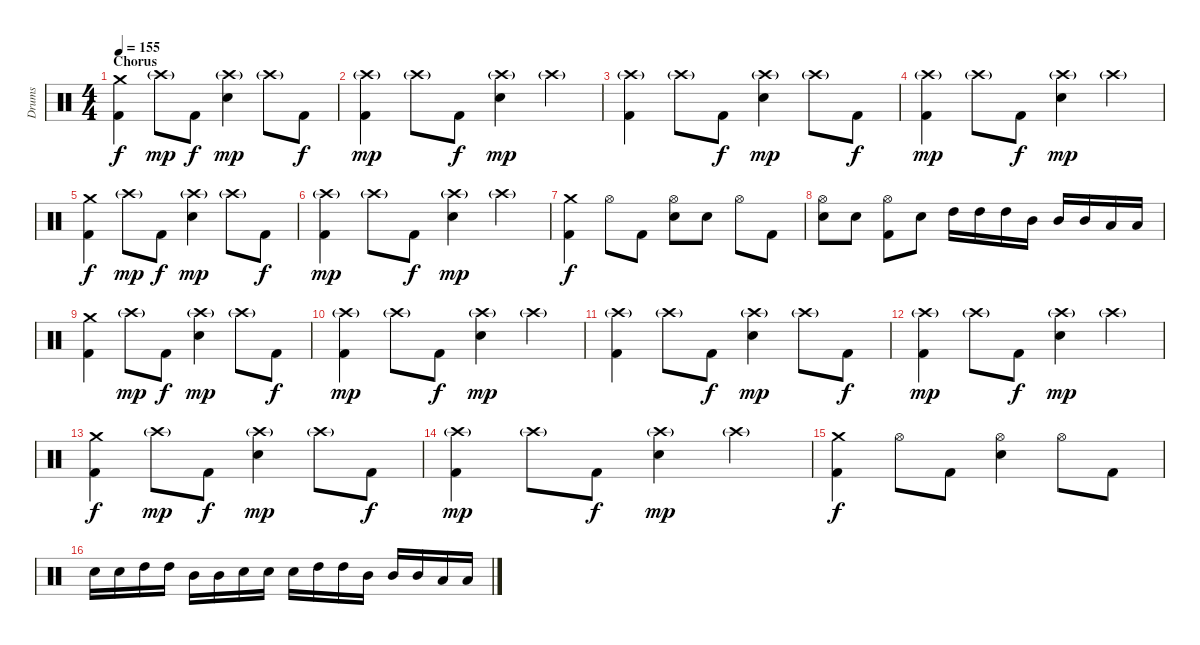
\track ("Drums" "Drums") {instrument percussion}
\staff {score}
\articulation defaults
\ts (4 4)
\section ("" "Chorus")
\tempo 155
\clef neutral
\ks c
("Crash medium (hit)" "Kick (hit) 2").4{dy f} "Crash high (hit)"{g}.8{dy mp} "Kick (hit) 2".8{dy f} ("Crash high (hit)"{g} "Electric Snare (hit)").4{dy mp} "Crash high (hit)"{g}.8 "Kick (hit) 2".8{dy f} |
("Crash high (hit)"{g} "Kick (hit) 2").4{dy mp} "Crash high (hit)"{g}.8 "Kick (hit) 2".8{dy f} ("Crash high (hit)"{g} "Electric Snare (hit)").4{dy mp} "Crash high (hit)"{g}.4 |
("Crash high (hit)"{g} "Kick (hit) 2").4 "Crash high (hit)"{g}.8 "Kick (hit) 2".8{dy f} ("Crash high (hit)"{g} "Electric Snare (hit)").4{dy mp} "Crash high (hit)"{g}.8 "Kick (hit) 2".8{dy f} |
("Crash high (hit)"{g} "Kick (hit) 2").4{dy mp} "Crash high (hit)"{g}.8 "Kick (hit) 2".8{dy f} ("Crash high (hit)"{g} "Electric Snare (hit)").4{dy mp} "Crash high (hit)"{g}.4 |
("Crash medium (hit)" "Kick (hit) 2").4{dy f} "Crash high (hit)"{g}.8{dy mp} "Kick (hit) 2".8{dy f} ("Crash high (hit)"{g} "Electric Snare (hit)").4{dy mp} "Crash high (hit)"{g}.8 "Kick (hit) 2".8{dy f} |
("Crash high (hit)"{g} "Kick (hit) 2").4{dy mp} "Crash high (hit)"{g}.8 "Kick (hit) 2".8{dy f} ("Crash high (hit)"{g} "Electric Snare (hit)").4{dy mp} "Crash high (hit)"{g}.4 |
("Crash medium (hit)" "Kick (hit) 2").4{dy f} "Hi-Hat (open)".8 "Kick (hit) 2".8 ("Hi-Hat (open)" "Electric Snare (hit)").8 "Electric Snare (hit)".8 "Hi-Hat (open)".8 "Kick (hit) 2".8 |
("Hi-Hat (open)" "Electric Snare (hit)").8 "Electric Snare (hit)".8 ("Hi-Hat (open)" "Kick (hit) 2").8 "Electric Snare (hit)".8 "High Tom (hit)".16 "High Tom (hit)".16 "High Tom (hit)".16 "Mid Tom (hit)".16 "Mid Tom (hit)".16 "Mid Tom (hit)".16 "Low Tom (hit)".16 "Low Tom (hit)".16 |
("Crash medium (hit)" "Kick (hit) 2").4 "Crash high (hit)"{g}.8{dy mp} "Kick (hit) 2".8{dy f} ("Crash high (hit)"{g} "Electric Snare (hit)").4{dy mp} "Crash high (hit)"{g}.8 "Kick (hit) 2".8{dy f} |
("Crash high (hit)"{g} "Kick (hit) 2").4{dy mp} "Crash high (hit)"{g}.8 "Kick (hit) 2".8{dy f} ("Crash high (hit)"{g} "Electric Snare (hit)").4{dy mp} "Crash high (hit)"{g}.4 |
("Crash high (hit)"{g} "Kick (hit) 2").4 "Crash high (hit)"{g}.8 "Kick (hit) 2".8{dy f} ("Crash high (hit)"{g} "Electric Snare (hit)").4{dy mp} "Crash high (hit)"{g}.8 "Kick (hit) 2".8{dy f} |
("Crash high (hit)"{g} "Kick (hit) 2").4{dy mp} "Crash high (hit)"{g}.8 "Kick (hit) 2".8{dy f} ("Crash high (hit)"{g} "Electric Snare (hit)").4{dy mp} "Crash high (hit)"{g}.4 |
("Crash medium (hit)" "Kick (hit) 2").4{dy f} "Crash high (hit)"{g}.8{dy mp} "Kick (hit) 2".8{dy f} ("Crash high (hit)"{g} "Electric Snare (hit)").4{dy mp} "Crash high (hit)"{g}.8 "Kick (hit) 2".8{dy f} |
("Crash high (hit)"{g} "Kick (hit) 2").4{dy mp} "Crash high (hit)"{g}.8 "Kick (hit) 2".8{dy f} ("Crash high (hit)"{g} "Electric Snare (hit)").4{dy mp} "Crash high (hit)"{g}.4 |
("Crash medium (hit)" "Kick (hit) 2").4{dy f} "Hi-Hat (open)".8 "Kick (hit) 2".8 ("Hi-Hat (open)" "Electric Snare (hit)").4 "Hi-Hat (open)".8 "Kick (hit) 2".8 |
"Electric Snare (hit)".16 "Electric Snare (hit)".16 "High Tom (hit)".16 "High Tom (hit)".16 "Mid Tom (hit)".16 "Mid Tom (hit)".16 "Electric Snare (hit)".16 "Electric Snare (hit)".16 "Electric Snare (hit)".16 "High Tom (hit)".16 "High Tom (hit)".16 "Mid Tom (hit)".16 "Mid Tom (hit)".16 "Mid Tom (hit)".16 "Low Tom (hit)".16 "Low Tom (hit)".16
